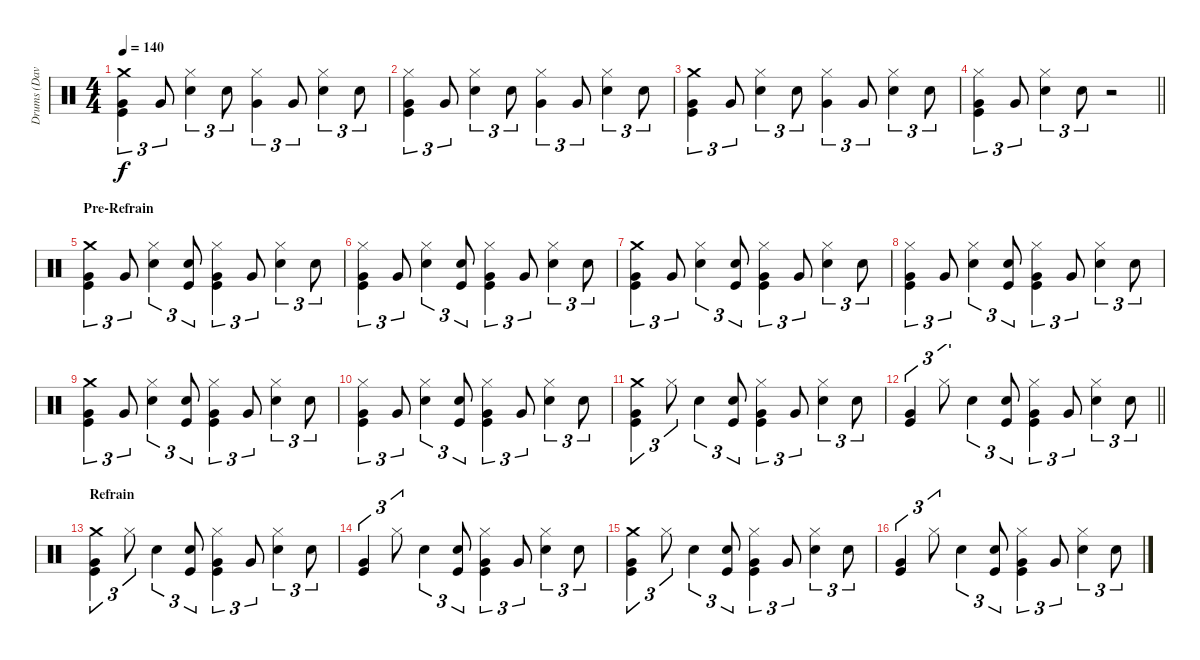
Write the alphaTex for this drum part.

\track ("Drums (Dave Atkins)" "Drums (Dav") {instrument percussion}
\staff {score}
\articulation defaults
\ts (4 4)
\tempo 140
\clef neutral
\ks c
("Crash medium (hit)" "Very Low Tom (hit)" "Kick (hit)").4{tu (3 2) dy f} "Very Low Tom (hit)".8{tu (3 2)} ("Hi-Hat (closed)" "Snare (hit) 2").4{tu (3 2)} "Snare (hit) 2".8{tu (3 2)} ("Hi-Hat (closed)" "Very Low Tom (hit)").4{tu (3 2)} "Very Low Tom (hit)".8{tu (3 2)} ("Hi-Hat (closed)" "Snare (hit) 2").4{tu (3 2)} "Snare (hit) 2".8{tu (3 2)} |
("Hi-Hat (closed)" "Very Low Tom (hit)" "Kick (hit)").4{tu (3 2)} "Very Low Tom (hit)".8{tu (3 2)} ("Hi-Hat (closed)" "Snare (hit) 2").4{tu (3 2)} "Snare (hit) 2".8{tu (3 2)} ("Hi-Hat (closed)" "Very Low Tom (hit)").4{tu (3 2)} "Very Low Tom (hit)".8{tu (3 2)} ("Hi-Hat (closed)" "Snare (hit) 2").4{tu (3 2)} "Snare (hit) 2".8{tu (3 2)} |
("Crash medium (hit)" "Very Low Tom (hit)" "Kick (hit)").4{tu (3 2)} "Very Low Tom (hit)".8{tu (3 2)} ("Hi-Hat (closed)" "Snare (hit) 2").4{tu (3 2)} "Snare (hit) 2".8{tu (3 2)} ("Hi-Hat (closed)" "Very Low Tom (hit)").4{tu (3 2)} "Very Low Tom (hit)".8{tu (3 2)} ("Hi-Hat (closed)" "Snare (hit) 2").4{tu (3 2)} "Snare (hit) 2".8{tu (3 2)} |
\barLineRight lightlight
("Hi-Hat (closed)" "Very Low Tom (hit)" "Kick (hit)").4{tu (3 2)} "Very Low Tom (hit)".8{tu (3 2)} ("Hi-Hat (closed)" "Snare (hit) 2").4{tu (3 2)} "Snare (hit) 2".8{tu (3 2)} r.2 |
\section ("" "Pre-Refrain")
("Crash medium (hit)" "Very Low Tom (hit)" "Kick (hit)").4{tu (3 2)} "Very Low Tom (hit)".8{tu (3 2)} ("Hi-Hat (closed)" "Snare (hit) 2").4{tu (3 2)} ("Snare (hit) 2" "Kick (hit)").8{tu (3 2)} ("Hi-Hat (closed)" "Very Low Tom (hit)" "Kick (hit)").4{tu (3 2)} "Very Low Tom (hit)".8{tu (3 2)} ("Hi-Hat (closed)" "Snare (hit) 2").4{tu (3 2)} "Snare (hit) 2".8{tu (3 2)} |
("Hi-Hat (closed)" "Very Low Tom (hit)" "Kick (hit)").4{tu (3 2)} "Very Low Tom (hit)".8{tu (3 2)} ("Hi-Hat (closed)" "Snare (hit) 2").4{tu (3 2)} ("Snare (hit) 2" "Kick (hit)").8{tu (3 2)} ("Hi-Hat (closed)" "Very Low Tom (hit)" "Kick (hit)").4{tu (3 2)} "Very Low Tom (hit)".8{tu (3 2)} ("Hi-Hat (closed)" "Snare (hit) 2").4{tu (3 2)} "Snare (hit) 2".8{tu (3 2)} |
("Crash medium (hit)" "Very Low Tom (hit)" "Kick (hit)").4{tu (3 2)} "Very Low Tom (hit)".8{tu (3 2)} ("Hi-Hat (closed)" "Snare (hit) 2").4{tu (3 2)} ("Snare (hit) 2" "Kick (hit)").8{tu (3 2)} ("Hi-Hat (closed)" "Very Low Tom (hit)" "Kick (hit)").4{tu (3 2)} "Very Low Tom (hit)".8{tu (3 2)} ("Hi-Hat (closed)" "Snare (hit) 2").4{tu (3 2)} "Snare (hit) 2".8{tu (3 2)} |
("Hi-Hat (closed)" "Very Low Tom (hit)" "Kick (hit)").4{tu (3 2)} "Very Low Tom (hit)".8{tu (3 2)} ("Hi-Hat (closed)" "Snare (hit) 2").4{tu (3 2)} ("Snare (hit) 2" "Kick (hit)").8{tu (3 2)} ("Hi-Hat (closed)" "Very Low Tom (hit)" "Kick (hit)").4{tu (3 2)} "Very Low Tom (hit)".8{tu (3 2)} ("Hi-Hat (closed)" "Snare (hit) 2").4{tu (3 2)} "Snare (hit) 2".8{tu (3 2)} |
("Crash medium (hit)" "Very Low Tom (hit)" "Kick (hit)").4{tu (3 2)} "Very Low Tom (hit)".8{tu (3 2)} ("Hi-Hat (closed)" "Snare (hit) 2").4{tu (3 2)} ("Snare (hit) 2" "Kick (hit)").8{tu (3 2)} ("Hi-Hat (closed)" "Very Low Tom (hit)" "Kick (hit)").4{tu (3 2)} "Very Low Tom (hit)".8{tu (3 2)} ("Hi-Hat (closed)" "Snare (hit) 2").4{tu (3 2)} "Snare (hit) 2".8{tu (3 2)} |
("Hi-Hat (closed)" "Very Low Tom (hit)" "Kick (hit)").4{tu (3 2)} "Very Low Tom (hit)".8{tu (3 2)} ("Hi-Hat (closed)" "Snare (hit) 2").4{tu (3 2)} ("Snare (hit) 2" "Kick (hit)").8{tu (3 2)} ("Hi-Hat (closed)" "Very Low Tom (hit)" "Kick (hit)").4{tu (3 2)} "Very Low Tom (hit)".8{tu (3 2)} ("Hi-Hat (closed)" "Snare (hit) 2").4{tu (3 2)} "Snare (hit) 2".8{tu (3 2)} |
("Crash medium (hit)" "Very Low Tom (hit)" "Kick (hit)").4{tu (3 2)} "Hi-Hat (closed)".8{tu (3 2)} "Snare (hit) 2".4{tu (3 2)} ("Snare (hit) 2" "Kick (hit)").8{tu (3 2)} ("Hi-Hat (closed)" "Very Low Tom (hit)" "Kick (hit)").4{tu (3 2)} "Very Low Tom (hit)".8{tu (3 2)} ("Hi-Hat (closed)" "Snare (hit) 2").4{tu (3 2)} "Snare (hit) 2".8{tu (3 2)} |
\barLineRight lightlight
("Very Low Tom (hit)" "Kick (hit)").4{tu (3 2)} "Hi-Hat (closed)".8{tu (3 2)} "Snare (hit) 2".4{tu (3 2)} ("Snare (hit) 2" "Kick (hit)").8{tu (3 2)} ("Hi-Hat (closed)" "Very Low Tom (hit)" "Kick (hit)").4{tu (3 2)} "Very Low Tom (hit)".8{tu (3 2)} ("Hi-Hat (closed)" "Snare (hit) 2").4{tu (3 2)} "Snare (hit) 2".8{tu (3 2)} |
\section ("" "Refrain")
("Crash medium (hit)" "Very Low Tom (hit)" "Kick (hit)").4{tu (3 2)} "Hi-Hat (closed)".8{tu (3 2)} "Snare (hit) 2".4{tu (3 2)} ("Snare (hit) 2" "Kick (hit)").8{tu (3 2)} ("Hi-Hat (closed)" "Very Low Tom (hit)" "Kick (hit)").4{tu (3 2)} "Very Low Tom (hit)".8{tu (3 2)} ("Hi-Hat (closed)" "Snare (hit) 2").4{tu (3 2)} "Snare (hit) 2".8{tu (3 2)} |
("Very Low Tom (hit)" "Kick (hit)").4{tu (3 2)} "Hi-Hat (closed)".8{tu (3 2)} "Snare (hit) 2".4{tu (3 2)} ("Snare (hit) 2" "Kick (hit)").8{tu (3 2)} ("Hi-Hat (closed)" "Very Low Tom (hit)" "Kick (hit)").4{tu (3 2)} "Very Low Tom (hit)".8{tu (3 2)} ("Hi-Hat (closed)" "Snare (hit) 2").4{tu (3 2)} "Snare (hit) 2".8{tu (3 2)} |
("Crash medium (hit)" "Very Low Tom (hit)" "Kick (hit)").4{tu (3 2)} "Hi-Hat (closed)".8{tu (3 2)} "Snare (hit) 2".4{tu (3 2)} ("Snare (hit) 2" "Kick (hit)").8{tu (3 2)} ("Hi-Hat (closed)" "Very Low Tom (hit)" "Kick (hit)").4{tu (3 2)} "Very Low Tom (hit)".8{tu (3 2)} ("Hi-Hat (closed)" "Snare (hit) 2").4{tu (3 2)} "Snare (hit) 2".8{tu (3 2)} |
("Very Low Tom (hit)" "Kick (hit)").4{tu (3 2)} "Hi-Hat (closed)".8{tu (3 2)} "Snare (hit) 2".4{tu (3 2)} ("Snare (hit) 2" "Kick (hit)").8{tu (3 2)} ("Hi-Hat (closed)" "Very Low Tom (hit)" "Kick (hit)").4{tu (3 2)} "Very Low Tom (hit)".8{tu (3 2)} ("Hi-Hat (closed)" "Snare (hit) 2").4{tu (3 2)} "Snare (hit) 2".8{tu (3 2)}
